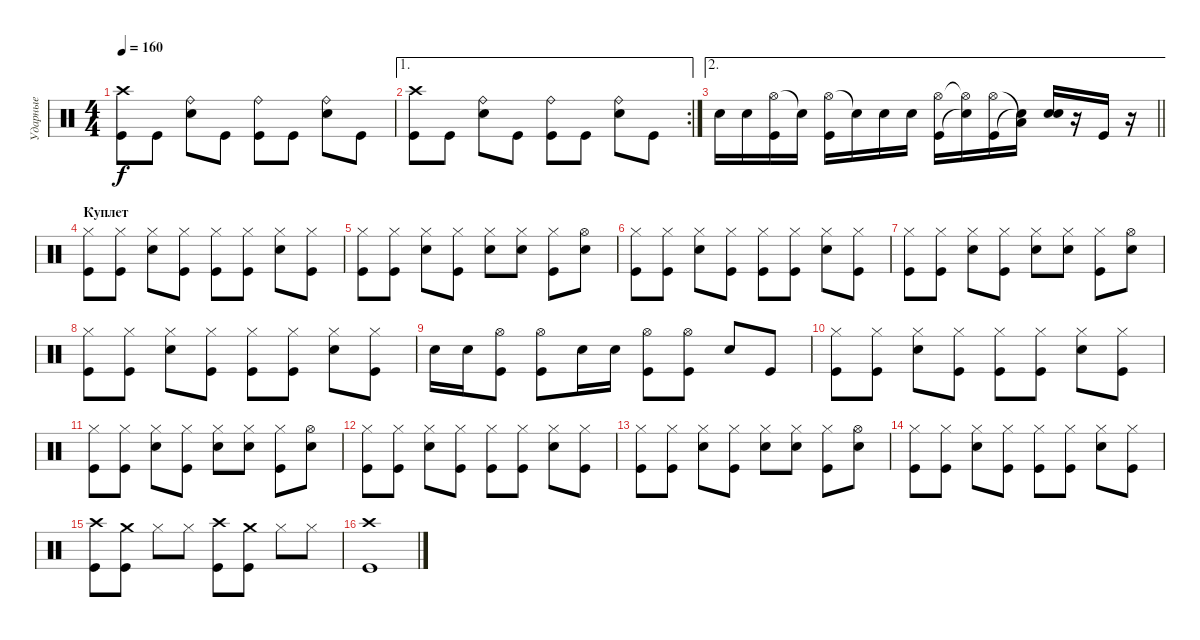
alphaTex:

\track ("Ударные" "Ударные") {instrument percussion}
\staff {score}
\articulation defaults
\ts (4 4)
\tempo 160
\clef neutral
\ks c
("Crash high (hit)" "Kick (hit)").8{dy f} "Kick (hit)".8 ("Ride (bell)" "Electric Snare (hit)").8 "Kick (hit)".8 ("Ride (bell)" "Kick (hit)").8 "Kick (hit)".8 ("Ride (bell)" "Electric Snare (hit)").8 "Kick (hit)".8 |
\ae 1
\rc 2
("Crash high (hit)" "Kick (hit)").8 "Kick (hit)".8 ("Ride (bell)" "Electric Snare (hit)").8 "Kick (hit)".8 ("Ride (bell)" "Kick (hit)").8 "Kick (hit)".8 ("Ride (bell)" "Electric Snare (hit)").8 "Kick (hit)".8 |
\ae 2
\barLineRight lightlight "Electric Snare (hit)".16 "Electric Snare (hit)".16
("Hi-Hat (open)" "Kick (hit)").16 "Snare (hit)"{t}.16 ("Hi-Hat (open)" "Kick (hit)").16 "Snare (hit)"{t}.16 "Electric Snare (hit)".16 "Electric Snare (hit)".16 ("Hi-Hat (open)" "Kick (hit)").16 ("Hi-Hat (open)"{t} "Snare (hit)"{t}).16 ("Hi-Hat (open)" "Kick (hit)").16 ("Low Tom (hit)"{t} "Snare (hit)"{t}).16 ("Electric Snare (hit)" "Electric Snare (hit)").16 r.16 "Kick (hit)".16 r.16 |
\section ("" "Куплет")
("Hi-Hat (closed)" "Kick (hit)").8 ("Hi-Hat (closed)" "Kick (hit)").8 ("Hi-Hat (closed)" "Electric Snare (hit)").8 ("Hi-Hat (closed)" "Kick (hit)").8 ("Hi-Hat (closed)" "Kick (hit)").8 ("Hi-Hat (closed)" "Kick (hit)").8 ("Hi-Hat (closed)" "Electric Snare (hit)").8 ("Hi-Hat (closed)" "Kick (hit)").8 |
("Hi-Hat (closed)" "Kick (hit)").8 ("Hi-Hat (closed)" "Kick (hit)").8 ("Hi-Hat (closed)" "Electric Snare (hit)").8 ("Hi-Hat (closed)" "Kick (hit)").8 ("Hi-Hat (closed)" "Electric Snare (hit)").8 ("Hi-Hat (closed)" "Electric Snare (hit)").8 ("Hi-Hat (closed)" "Kick (hit)").8 ("Hi-Hat (open)" "Electric Snare (hit)").8 |
("Hi-Hat (closed)" "Kick (hit)").8 ("Hi-Hat (closed)" "Kick (hit)").8 ("Hi-Hat (closed)" "Electric Snare (hit)").8 ("Hi-Hat (closed)" "Kick (hit)").8 ("Hi-Hat (closed)" "Kick (hit)").8 ("Hi-Hat (closed)" "Kick (hit)").8 ("Hi-Hat (closed)" "Electric Snare (hit)").8 ("Hi-Hat (closed)" "Kick (hit)").8 |
("Hi-Hat (closed)" "Kick (hit)").8 ("Hi-Hat (closed)" "Kick (hit)").8 ("Hi-Hat (closed)" "Electric Snare (hit)").8 ("Hi-Hat (closed)" "Kick (hit)").8 ("Hi-Hat (closed)" "Electric Snare (hit)").8 ("Hi-Hat (closed)" "Electric Snare (hit)").8 ("Hi-Hat (closed)" "Kick (hit)").8 ("Hi-Hat (open)" "Electric Snare (hit)").8 |
("Hi-Hat (closed)" "Kick (hit)").8 ("Hi-Hat (closed)" "Kick (hit)").8 ("Hi-Hat (closed)" "Electric Snare (hit)").8 ("Hi-Hat (closed)" "Kick (hit)").8 ("Hi-Hat (closed)" "Kick (hit)").8 ("Hi-Hat (closed)" "Kick (hit)").8 ("Hi-Hat (closed)" "Electric Snare (hit)").8 ("Hi-Hat (closed)" "Kick (hit)").8 |
"Electric Snare (hit)".16 "Electric Snare (hit)".16 ("Hi-Hat (open)" "Kick (hit)").8 ("Hi-Hat (open)" "Kick (hit)").8 "Electric Snare (hit)".16 "Electric Snare (hit)".16 ("Hi-Hat (open)" "Kick (hit)").8 ("Hi-Hat (open)" "Kick (hit)").8 "Electric Snare (hit)".8 "Kick (hit)".8 |
("Hi-Hat (closed)" "Kick (hit)").8 ("Hi-Hat (closed)" "Kick (hit)").8 ("Hi-Hat (closed)" "Electric Snare (hit)").8 ("Hi-Hat (closed)" "Kick (hit)").8 ("Hi-Hat (closed)" "Kick (hit)").8 ("Hi-Hat (closed)" "Kick (hit)").8 ("Hi-Hat (closed)" "Electric Snare (hit)").8 ("Hi-Hat (closed)" "Kick (hit)").8 |
("Hi-Hat (closed)" "Kick (hit)").8 ("Hi-Hat (closed)" "Kick (hit)").8 ("Hi-Hat (closed)" "Electric Snare (hit)").8 ("Hi-Hat (closed)" "Kick (hit)").8 ("Hi-Hat (closed)" "Electric Snare (hit)").8 ("Hi-Hat (closed)" "Electric Snare (hit)").8 ("Hi-Hat (closed)" "Kick (hit)").8 ("Hi-Hat (open)" "Electric Snare (hit)").8 |
("Hi-Hat (closed)" "Kick (hit)").8 ("Hi-Hat (closed)" "Kick (hit)").8 ("Hi-Hat (closed)" "Electric Snare (hit)").8 ("Hi-Hat (closed)" "Kick (hit)").8 ("Hi-Hat (closed)" "Kick (hit)").8 ("Hi-Hat (closed)" "Kick (hit)").8 ("Hi-Hat (closed)" "Electric Snare (hit)").8 ("Hi-Hat (closed)" "Kick (hit)").8 |
("Hi-Hat (closed)" "Kick (hit)").8 ("Hi-Hat (closed)" "Kick (hit)").8 ("Hi-Hat (closed)" "Electric Snare (hit)").8 ("Hi-Hat (closed)" "Kick (hit)").8 ("Hi-Hat (closed)" "Electric Snare (hit)").8 ("Hi-Hat (closed)" "Electric Snare (hit)").8 ("Hi-Hat (closed)" "Kick (hit)").8 ("Hi-Hat (open)" "Electric Snare (hit)").8 |
("Hi-Hat (closed)" "Kick (hit)").8 ("Hi-Hat (closed)" "Kick (hit)").8 ("Hi-Hat (closed)" "Electric Snare (hit)").8 ("Hi-Hat (closed)" "Kick (hit)").8 ("Hi-Hat (closed)" "Kick (hit)").8 ("Hi-Hat (closed)" "Kick (hit)").8 ("Hi-Hat (closed)" "Electric Snare (hit)").8 ("Hi-Hat (closed)" "Kick (hit)").8 |
("Crash high (hit)" "Kick (hit)").8 ("Crash medium (hit)" "Kick (hit)").8 "Hi-Hat (closed)".8 "Hi-Hat (closed)".8 ("Crash high (hit)" "Kick (hit)").8 ("Crash medium (hit)" "Kick (hit)").8 "Hi-Hat (closed)".8 "Hi-Hat (closed)".8 |
("Crash high (hit)" "Kick (hit)").1
